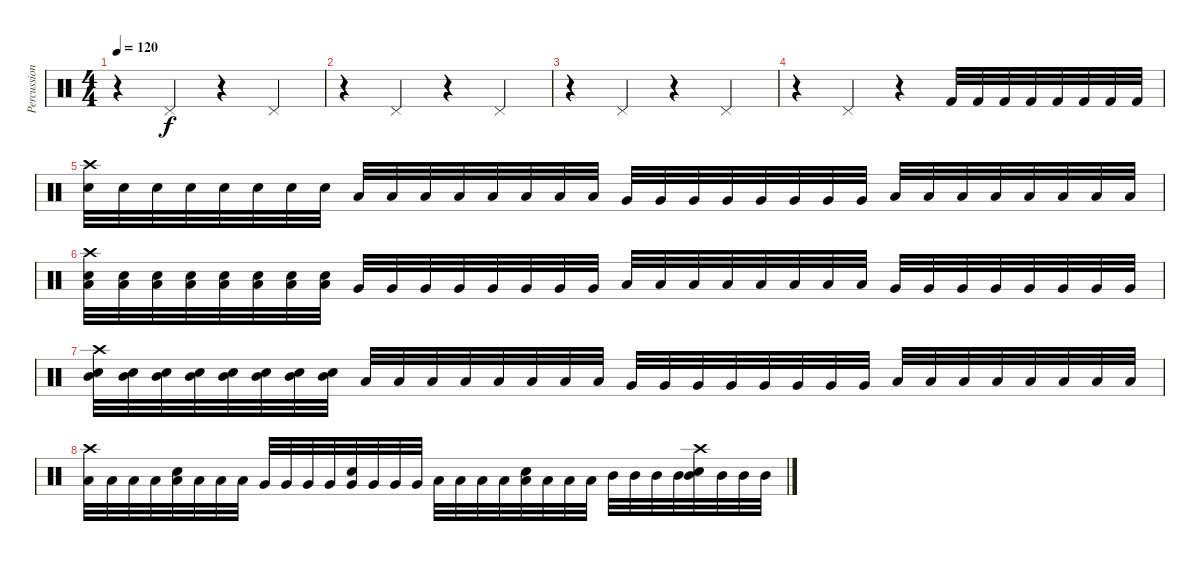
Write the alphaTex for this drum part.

\track ("Percussion" "Percussion") {instrument percussion}
\staff {score}
\articulation defaults
\ts (4 4)
\tempo 120
\clef neutral
\ks c
r.4{dy f} "Pedal Hi-Hat (hit)".4 r.4 "Pedal Hi-Hat (hit)".4 |
r.4 "Pedal Hi-Hat (hit)".4 r.4 "Pedal Hi-Hat (hit)".4 |
r.4 "Pedal Hi-Hat (hit)".4 r.4 "Pedal Hi-Hat (hit)".4 |
r.4 "Pedal Hi-Hat (hit)".4 r.4 "Kick (hit) 2".32 "Kick (hit) 2".32 "Kick (hit) 2".32 "Kick (hit) 2".32 "Kick (hit) 2".32 "Kick (hit) 2".32 "Kick (hit) 2".32 "Kick (hit) 2".32 |
("Crash high (hit)" "Electric Snare (hit)").32 "Electric Snare (hit)".32 "Electric Snare (hit)".32 "Electric Snare (hit)".32 "Electric Snare (hit)".32 "Electric Snare (hit)".32 "Electric Snare (hit)".32 "Electric Snare (hit)".32 "Low Floor Tom (hit)".32 "Low Floor Tom (hit)".32 "Low Floor Tom (hit)".32 "Low Floor Tom (hit)".32 "Low Floor Tom (hit)".32 "Low Floor Tom (hit)".32 "Low Floor Tom (hit)".32 "Low Floor Tom (hit)".32 "Very Low Tom (hit)".32 "Very Low Tom (hit)".32 "Very Low Tom (hit)".32 "Very Low Tom (hit)".32 "Very Low Tom (hit)".32 "Very Low Tom (hit)".32 "Very Low Tom (hit)".32 "Very Low Tom (hit)".32 "Low Floor Tom (hit)".32 "Low Floor Tom (hit)".32 "Low Floor Tom (hit)".32 "Low Floor Tom (hit)".32 "Low Floor Tom (hit)".32 "Low Floor Tom (hit)".32 "Low Floor Tom (hit)".32 "Low Floor Tom (hit)".32 |
("Crash high (hit)" "Low Tom (hit)" "Electric Snare (hit)").32 ("Low Tom (hit)" "Electric Snare (hit)").32 ("Low Tom (hit)" "Electric Snare (hit)").32 ("Low Tom (hit)" "Electric Snare (hit)").32 ("Low Tom (hit)" "Electric Snare (hit)").32 ("Low Tom (hit)" "Electric Snare (hit)").32 ("Low Tom (hit)" "Electric Snare (hit)").32 ("Low Tom (hit)" "Electric Snare (hit)").32 "Very Low Tom (hit)".32 "Very Low Tom (hit)".32 "Very Low Tom (hit)".32 "Very Low Tom (hit)".32 "Very Low Tom (hit)".32 "Very Low Tom (hit)".32 "Very Low Tom (hit)".32 "Very Low Tom (hit)".32 "Low Floor Tom (hit)".32 "Low Floor Tom (hit)".32 "Low Floor Tom (hit)".32 "Low Floor Tom (hit)".32 "Low Floor Tom (hit)".32 "Low Floor Tom (hit)".32 "Low Floor Tom (hit)".32 "Low Floor Tom (hit)".32 "Very Low Tom (hit)".32 "Very Low Tom (hit)".32 "Very Low Tom (hit)".32 "Very Low Tom (hit)".32 "Very Low Tom (hit)".32 "Very Low Tom (hit)".32 "Very Low Tom (hit)".32 "Very Low Tom (hit)".32 |
("Crash high (hit)" "Mid Tom (hit)" "Electric Snare (hit)").32 ("Mid Tom (hit)" "Electric Snare (hit)").32 ("Mid Tom (hit)" "Electric Snare (hit)").32 ("Mid Tom (hit)" "Electric Snare (hit)").32 ("Mid Tom (hit)" "Electric Snare (hit)").32 ("Mid Tom (hit)" "Electric Snare (hit)").32 ("Mid Tom (hit)" "Electric Snare (hit)").32 ("Mid Tom (hit)" "Electric Snare (hit)").32 "Low Tom (hit)".32 "Low Tom (hit)".32 "Low Tom (hit)".32 "Low Tom (hit)".32 "Low Tom (hit)".32 "Low Tom (hit)".32 "Low Tom (hit)".32 "Low Tom (hit)".32 "Very Low Tom (hit)".32 "Very Low Tom (hit)".32 "Very Low Tom (hit)".32 "Very Low Tom (hit)".32 "Very Low Tom (hit)".32 "Very Low Tom (hit)".32 "Very Low Tom (hit)".32 "Very Low Tom (hit)".32 "Low Tom (hit)".32 "Low Tom (hit)".32 "Low Tom (hit)".32 "Low Tom (hit)".32 "Low Tom (hit)".32 "Low Tom (hit)".32 "Low Tom (hit)".32 "Low Tom (hit)".32 |
("Crash high (hit)" "Low Floor Tom (hit)").32 "Low Floor Tom (hit)".32 "Low Floor Tom (hit)".32 "Low Floor Tom (hit)".32 ("Low Floor Tom (hit)" "Electric Snare (hit)").32 "Low Floor Tom (hit)".32 "Low Floor Tom (hit)".32 "Low Floor Tom (hit)".32 "Very Low Tom (hit)".32 "Very Low Tom (hit)".32 "Very Low Tom (hit)".32 "Very Low Tom (hit)".32 ("Very Low Tom (hit)" "Electric Snare (hit)").32 "Very Low Tom (hit)".32 "Very Low Tom (hit)".32 "Very Low Tom (hit)".32 "Low Tom (hit)".32 "Low Tom (hit)".32 "Low Tom (hit)".32 "Low Tom (hit)".32 ("Low Tom (hit)" "Electric Snare (hit)").32 "Low Tom (hit)".32 "Low Tom (hit)".32 "Low Tom (hit)".32 "Mid Tom (hit)".32 "Mid Tom (hit)".32 "Mid Tom (hit)".32 "Mid Tom (hit)".32 ("Crash high (hit)" "Mid Tom (hit)" "Electric Snare (hit)").32 "Mid Tom (hit)".32 "Mid Tom (hit)".32 "Mid Tom (hit)".32
